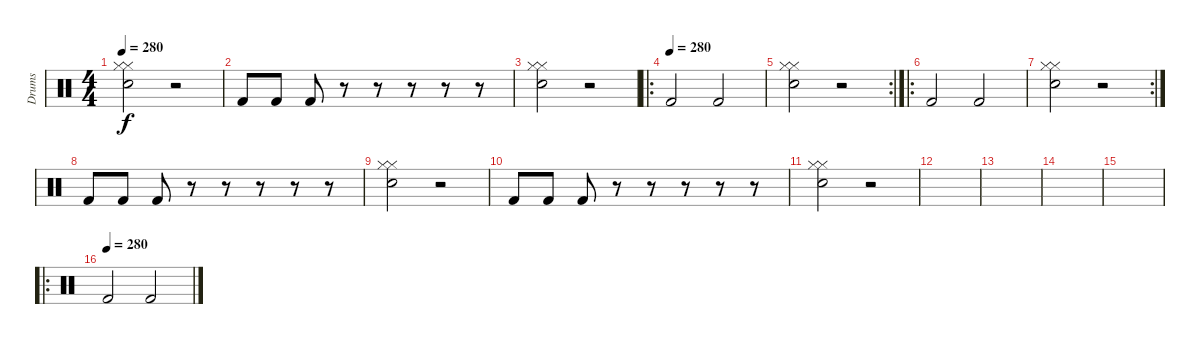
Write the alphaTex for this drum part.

\track ("Drums" "Drums") {instrument percussion}
\staff {score}
\articulation defaults
\ts (4 4)
\tempo 280
\clef neutral
\ks c
("Hi-Hat (closed)" "Hi-Hat (closed)" "Electric Snare (hit)").2{dy f} r.2 |
"Kick (hit) 2".8 "Kick (hit) 2".8 "Kick (hit) 2".8 r.8 r.8 r.8 r.8 r.8 |
("Hi-Hat (closed)" "Hi-Hat (closed)" "Electric Snare (hit)").2 r.2 |
\ro
\tempo (280)
"Kick (hit) 2".2 "Kick (hit) 2".2 |
\rc 2
("Hi-Hat (closed)" "Hi-Hat (closed)" "Electric Snare (hit)").2 r.2 |
\ro "Kick (hit) 2".2 "Kick (hit) 2".2
|
\rc 2
("Hi-Hat (closed)" "Hi-Hat (closed)" "Electric Snare (hit)").2 r.2 |
"Kick (hit) 2".8 "Kick (hit) 2".8 "Kick (hit) 2".8 r.8 r.8 r.8 r.8 r.8 |
("Hi-Hat (closed)" "Hi-Hat (closed)" "Electric Snare (hit)").2 r.2 |
"Kick (hit) 2".8 "Kick (hit) 2".8 "Kick (hit) 2".8 r.8 r.8 r.8 r.8 r.8 |
("Hi-Hat (closed)" "Hi-Hat (closed)" "Electric Snare (hit)").2 r.2 |
|
|
|
|
\ro
\tempo (280)
"Kick (hit) 2".2 "Kick (hit) 2".2
